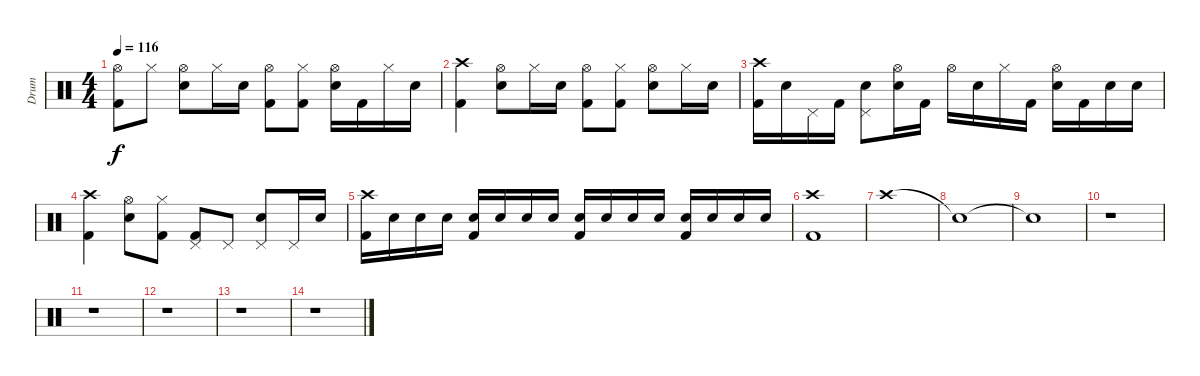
\track ("Drum" "Drum") {instrument percussion}
\staff {score}
\articulation defaults
\ts (4 4)
\tempo 116
\clef neutral
\ks c
("Hi-Hat (open)" "Kick (hit) 2").8{dy f} "Hi-Hat (closed)".8 ("Hi-Hat (open)" "Electric Snare (hit)").8 "Hi-Hat (closed)".16 "Electric Snare (hit)".16 ("Hi-Hat (open)" "Kick (hit) 2").8 ("Hi-Hat (closed)" "Kick (hit) 2").8 ("Hi-Hat (open)" "Electric Snare (hit)").16 "Kick (hit) 2".16 "Hi-Hat (closed)".16 "Electric Snare (hit)".16 |
("Crash high (hit)" "Kick (hit) 2").4 ("Hi-Hat (open)" "Electric Snare (hit)").8 "Hi-Hat (closed)".16 "Electric Snare (hit)".16 ("Hi-Hat (open)" "Kick (hit) 2").8 ("Hi-Hat (closed)" "Kick (hit) 2").8 ("Hi-Hat (open)" "Electric Snare (hit)").8 "Hi-Hat (closed)".16 "Electric Snare (hit)".16 |
("Crash high (hit)" "Kick (hit) 2").16 "Electric Snare (hit)".16 "Pedal Hi-Hat (hit)".16 "Kick (hit) 2".16 ("Pedal Hi-Hat (hit)" "Electric Snare (hit)").8 ("Hi-Hat (open)" "Electric Snare (hit)").16 "Kick (hit) 2".16 "Hi-Hat (open)".16 "Electric Snare (hit)".16 "Hi-Hat (closed)".16 "Kick (hit) 2".16 ("Hi-Hat (open)" "Electric Snare (hit)").16 "Kick (hit) 2".16 "Electric Snare (hit)".16 "Electric Snare (hit)".16 |
("Crash high (hit)" "Kick (hit) 2").4 ("Hi-Hat (open)" "Electric Snare (hit)").8 ("Hi-Hat (closed)" "Kick (hit) 2").8 ("Pedal Hi-Hat (hit)" "Kick (hit) 2").8 "Pedal Hi-Hat (hit)".8 ("Pedal Hi-Hat (hit)" "Electric Snare (hit)").8 "Pedal Hi-Hat (hit)".16 "Electric Snare (hit)".16 |
("Crash high (hit)" "Kick (hit) 2").16 "Electric Snare (hit)".16 "Electric Snare (hit)".16 "Electric Snare (hit)".16 ("Electric Snare (hit)" "Kick (hit) 2").16 "Electric Snare (hit)".16 "Electric Snare (hit)".16 "Electric Snare (hit)".16 ("Electric Snare (hit)" "Kick (hit) 2").16 "Electric Snare (hit)".16 "Electric Snare (hit)".16 "Electric Snare (hit)".16 ("Electric Snare (hit)" "Kick (hit) 2").16 "Electric Snare (hit)".16 "Electric Snare (hit)".16 "Electric Snare (hit)".16 |
("Crash high (hit)" "Kick (hit) 2").1 |
"Crash high (hit)".1 |
"Snare (hit)"{t}.1 |
"Snare (hit)"{t}.1 |
r.1 |
r.1 |
r.1 |
r.1 |
r.1
